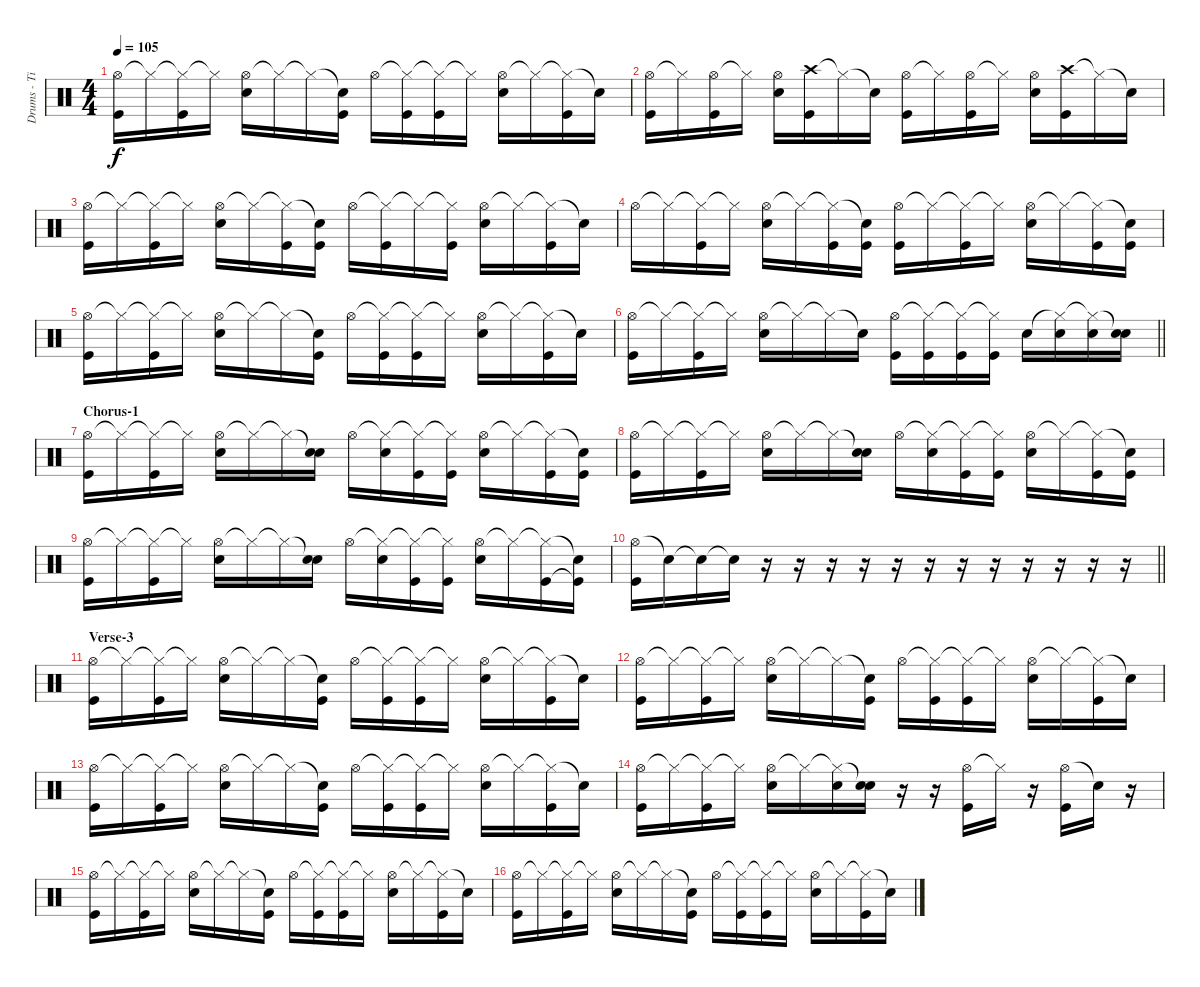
\track ("Drums - Tipu" "Drums - Ti") {instrument percussion}
\staff {score}
\articulation defaults
\ts (4 4)
\tempo 105
\clef neutral
\ks c
("Hi-Hat (open)" "Kick (hit)").16{dy f} "Hi-Hat (closed)"{t}.16 ("Hi-Hat (closed)"{t} "Kick (hit)").16 "Hi-Hat (closed)"{t}.16 ("Hi-Hat (open)" "Electric Snare (hit)").16 "Hi-Hat (closed)"{t}.16 "Hi-Hat (closed)"{t}.16 ("Snare (hit)"{t} "Kick (hit)").16 "Hi-Hat (open)".16 ("Hi-Hat (closed)"{t} "Kick (hit)").16 ("Hi-Hat (closed)"{t} "Kick (hit)").16 "Hi-Hat (closed)"{t}.16 ("Hi-Hat (open)" "Electric Snare (hit)").16 "Hi-Hat (closed)"{t}.16 ("Hi-Hat (closed)"{t} "Kick (hit)").16 "Snare (hit)"{t}.16 |
("Hi-Hat (open)" "Kick (hit)").16 "Hi-Hat (closed)"{t}.16 ("Hi-Hat (open)" "Kick (hit)").16 "Hi-Hat (closed)"{t}.16 ("Hi-Hat (open)" "Electric Snare (hit)").16 ("Crash high (hit)" "Kick (hit)").16 "Hi-Hat (closed)"{t}.16 "Snare (hit)"{t}.16 ("Hi-Hat (open)" "Kick (hit)").16 "Hi-Hat (closed)"{t}.16 ("Hi-Hat (open)" "Kick (hit)").16 "Hi-Hat (closed)"{t}.16 ("Hi-Hat (open)" "Electric Snare (hit)").16 ("Crash high (hit)" "Kick (hit)").16 "Hi-Hat (closed)"{t}.16 "Snare (hit)"{t}.16 |
("Hi-Hat (open)" "Kick (hit)").16 "Hi-Hat (closed)"{t}.16 ("Hi-Hat (closed)"{t} "Kick (hit)").16 "Hi-Hat (closed)"{t}.16 ("Hi-Hat (open)" "Electric Snare (hit)").16 "Hi-Hat (closed)"{t}.16 ("Hi-Hat (closed)"{t} "Kick (hit)").16 ("Snare (hit)"{t} "Kick (hit)").16 "Hi-Hat (open)".16 ("Hi-Hat (closed)"{t} "Kick (hit)").16 "Hi-Hat (closed)"{t}.16 ("Hi-Hat (closed)"{t} "Kick (hit)").16 ("Hi-Hat (open)" "Electric Snare (hit)").16 "Hi-Hat (closed)"{t}.16 ("Hi-Hat (closed)"{t} "Kick (hit)").16 "Snare (hit)"{t}.16 |
"Hi-Hat (open)".16 "Hi-Hat (closed)"{t}.16 ("Hi-Hat (closed)"{t} "Kick (hit)").16 "Hi-Hat (closed)"{t}.16 ("Hi-Hat (open)" "Electric Snare (hit)").16 "Hi-Hat (closed)"{t}.16 ("Hi-Hat (closed)"{t} "Kick (hit)").16 ("Snare (hit)"{t} "Kick (hit)").16 ("Hi-Hat (open)" "Kick (hit)").16 "Hi-Hat (closed)"{t}.16 ("Hi-Hat (closed)"{t} "Kick (hit)").16 "Hi-Hat (closed)"{t}.16 ("Hi-Hat (open)" "Electric Snare (hit)").16 "Hi-Hat (closed)"{t}.16 ("Hi-Hat (closed)"{t} "Kick (hit)").16 ("Snare (hit)"{t} "Kick (hit)").16 |
("Hi-Hat (open)" "Kick (hit)").16 "Hi-Hat (closed)"{t}.16 ("Hi-Hat (closed)"{t} "Kick (hit)").16 "Hi-Hat (closed)"{t}.16 ("Hi-Hat (open)" "Electric Snare (hit)").16 "Hi-Hat (closed)"{t}.16 "Hi-Hat (closed)"{t}.16 ("Snare (hit)"{t} "Kick (hit)").16 "Hi-Hat (open)".16 ("Hi-Hat (closed)"{t} "Kick (hit)").16 ("Hi-Hat (closed)"{t} "Kick (hit)").16 "Hi-Hat (closed)"{t}.16 ("Hi-Hat (open)" "Electric Snare (hit)").16 "Hi-Hat (closed)"{t}.16 ("Hi-Hat (closed)"{t} "Kick (hit)").16 "Snare (hit)"{t}.16 |
\barLineRight lightlight
("Hi-Hat (open)" "Kick (hit)").16 "Hi-Hat (closed)"{t}.16 ("Hi-Hat (closed)"{t} "Kick (hit)").16 "Hi-Hat (closed)"{t}.16 ("Hi-Hat (open)" "Electric Snare (hit)").16 "Hi-Hat (closed)"{t}.16 "Hi-Hat (closed)"{t}.16 "Snare (hit)"{t}.16 ("Hi-Hat (open)" "Kick (hit)").16 ("Hi-Hat (closed)"{t} "Kick (hit)").16 ("Hi-Hat (closed)"{t} "Kick (hit)").16 ("Hi-Hat (closed)"{t} "Kick (hit)").16 "Electric Snare (hit)".16 ("Hi-Hat (closed)"{t} "Electric Snare (hit)").16 ("Hi-Hat (closed)"{t} "Electric Snare (hit)").16 ("Snare (hit)"{t} "Electric Snare (hit)").16 |
\section ("" "Chorus-1")
("Hi-Hat (open)" "Kick (hit)").16 "Hi-Hat (closed)"{t}.16 ("Hi-Hat (closed)"{t} "Kick (hit)").16 "Hi-Hat (closed)"{t}.16 ("Hi-Hat (open)" "Electric Snare (hit)").16 "Hi-Hat (closed)"{t}.16 "Hi-Hat (closed)"{t}.16 ("Snare (hit)"{t} "Electric Snare (hit)").16 "Hi-Hat (open)".16 ("Hi-Hat (closed)"{t} "Electric Snare (hit)").16 ("Hi-Hat (closed)"{t} "Kick (hit)").16 ("Hi-Hat (closed)"{t} "Kick (hit)").16 ("Hi-Hat (open)" "Electric Snare (hit)").16 "Hi-Hat (closed)"{t}.16 ("Hi-Hat (closed)"{t} "Kick (hit)").16 ("Snare (hit)"{t} "Kick (hit)").16 |
("Hi-Hat (open)" "Kick (hit)").16 "Hi-Hat (closed)"{t}.16 ("Hi-Hat (closed)"{t} "Kick (hit)").16 "Hi-Hat (closed)"{t}.16 ("Hi-Hat (open)" "Electric Snare (hit)").16 "Hi-Hat (closed)"{t}.16 "Hi-Hat (closed)"{t}.16 ("Snare (hit)"{t} "Electric Snare (hit)").16 "Hi-Hat (open)".16 ("Hi-Hat (closed)"{t} "Electric Snare (hit)").16 ("Hi-Hat (closed)"{t} "Kick (hit)").16 ("Hi-Hat (closed)"{t} "Kick (hit)").16 ("Hi-Hat (open)" "Electric Snare (hit)").16 "Hi-Hat (closed)"{t}.16 ("Hi-Hat (closed)"{t} "Kick (hit)").16 ("Snare (hit)"{t} "Kick (hit)").16 |
("Hi-Hat (open)" "Kick (hit)").16 "Hi-Hat (closed)"{t}.16 ("Hi-Hat (closed)"{t} "Kick (hit)").16 "Hi-Hat (closed)"{t}.16 ("Hi-Hat (open)" "Electric Snare (hit)").16 "Hi-Hat (closed)"{t}.16 "Hi-Hat (closed)"{t}.16 ("Snare (hit)"{t} "Electric Snare (hit)").16 "Hi-Hat (open)".16 ("Hi-Hat (closed)"{t} "Electric Snare (hit)").16 ("Hi-Hat (closed)"{t} "Kick (hit)").16 ("Hi-Hat (closed)"{t} "Kick (hit)").16 ("Hi-Hat (open)" "Electric Snare (hit)").16 "Hi-Hat (closed)"{t}.16 ("Hi-Hat (closed)"{t} "Kick (hit)").16 ("Snare (hit)"{t} "Kick (hit)"{t}).16 |
\barLineRight lightlight
("Hi-Hat (open)" "Kick (hit)").16 "Snare (hit)"{t}.16 "Snare (hit)"{t}.16 "Snare (hit)"{t}.16 r.16 r.16 r.16 r.16 r.16 r.16 r.16 r.16 r.16 r.16 r.16 r.16 |
\section ("" "Verse-3")
("Hi-Hat (open)" "Kick (hit)").16 "Hi-Hat (closed)"{t}.16 ("Hi-Hat (closed)"{t} "Kick (hit)").16 "Hi-Hat (closed)"{t}.16 ("Hi-Hat (open)" "Electric Snare (hit)").16 "Hi-Hat (closed)"{t}.16 "Hi-Hat (closed)"{t}.16 ("Snare (hit)"{t} "Kick (hit)").16 "Hi-Hat (open)".16 ("Hi-Hat (closed)"{t} "Kick (hit)").16 ("Hi-Hat (closed)"{t} "Kick (hit)").16 "Hi-Hat (closed)"{t}.16 ("Hi-Hat (open)" "Electric Snare (hit)").16 "Hi-Hat (closed)"{t}.16 ("Hi-Hat (closed)"{t} "Kick (hit)").16 "Snare (hit)"{t}.16 |
("Hi-Hat (open)" "Kick (hit)").16 "Hi-Hat (closed)"{t}.16 ("Hi-Hat (closed)"{t} "Kick (hit)").16 "Hi-Hat (closed)"{t}.16 ("Hi-Hat (open)" "Electric Snare (hit)").16 "Hi-Hat (closed)"{t}.16 "Hi-Hat (closed)"{t}.16 ("Snare (hit)"{t} "Kick (hit)").16 "Hi-Hat (open)".16 ("Hi-Hat (closed)"{t} "Kick (hit)").16 ("Hi-Hat (closed)"{t} "Kick (hit)").16 "Hi-Hat (closed)"{t}.16 ("Hi-Hat (open)" "Electric Snare (hit)").16 "Hi-Hat (closed)"{t}.16 ("Hi-Hat (closed)"{t} "Kick (hit)").16 "Snare (hit)"{t}.16 |
("Hi-Hat (open)" "Kick (hit)").16 "Hi-Hat (closed)"{t}.16 ("Hi-Hat (closed)"{t} "Kick (hit)").16 "Hi-Hat (closed)"{t}.16 ("Hi-Hat (open)" "Electric Snare (hit)").16 "Hi-Hat (closed)"{t}.16 "Hi-Hat (closed)"{t}.16 ("Snare (hit)"{t} "Kick (hit)").16 "Hi-Hat (open)".16 ("Hi-Hat (closed)"{t} "Kick (hit)").16 ("Hi-Hat (closed)"{t} "Kick (hit)").16 "Hi-Hat (closed)"{t}.16 ("Hi-Hat (open)" "Electric Snare (hit)").16 "Hi-Hat (closed)"{t}.16 ("Hi-Hat (closed)"{t} "Kick (hit)").16 "Snare (hit)"{t}.16 |
("Hi-Hat (open)" "Kick (hit)").16 "Hi-Hat (closed)"{t}.16 ("Hi-Hat (closed)"{t} "Kick (hit)").16 "Hi-Hat (closed)"{t}.16 ("Hi-Hat (open)" "Electric Snare (hit)").16 "Hi-Hat (closed)"{t}.16 ("Hi-Hat (closed)"{t} "Electric Snare (hit)").16 ("Snare (hit)"{t} "Electric Snare (hit)").16 r.16 r.16 ("Hi-Hat (open)" "Kick (hit)").16 "Hi-Hat (closed)"{t}.16 r.16 ("Hi-Hat (open)" "Kick (hit)").16 "Snare (hit)"{t}.16 r.16 |
("Hi-Hat (open)" "Kick (hit)").16 "Hi-Hat (closed)"{t}.16 ("Hi-Hat (closed)"{t} "Kick (hit)").16 "Hi-Hat (closed)"{t}.16 ("Hi-Hat (open)" "Electric Snare (hit)").16 "Hi-Hat (closed)"{t}.16 "Hi-Hat (closed)"{t}.16 ("Snare (hit)"{t} "Kick (hit)").16 "Hi-Hat (open)".16 ("Hi-Hat (closed)"{t} "Kick (hit)").16 ("Hi-Hat (closed)"{t} "Kick (hit)").16 "Hi-Hat (closed)"{t}.16 ("Hi-Hat (open)" "Electric Snare (hit)").16 "Hi-Hat (closed)"{t}.16 ("Hi-Hat (closed)"{t} "Kick (hit)").16 "Snare (hit)"{t}.16 |
("Hi-Hat (open)" "Kick (hit)").16 "Hi-Hat (closed)"{t}.16 ("Hi-Hat (closed)"{t} "Kick (hit)").16 "Hi-Hat (closed)"{t}.16 ("Hi-Hat (open)" "Electric Snare (hit)").16 "Hi-Hat (closed)"{t}.16 "Hi-Hat (closed)"{t}.16 ("Snare (hit)"{t} "Kick (hit)").16 "Hi-Hat (open)".16 ("Hi-Hat (closed)"{t} "Kick (hit)").16 ("Hi-Hat (closed)"{t} "Kick (hit)").16 "Hi-Hat (closed)"{t}.16 ("Hi-Hat (open)" "Electric Snare (hit)").16 "Hi-Hat (closed)"{t}.16 ("Hi-Hat (closed)"{t} "Kick (hit)").16 "Snare (hit)"{t}.16
